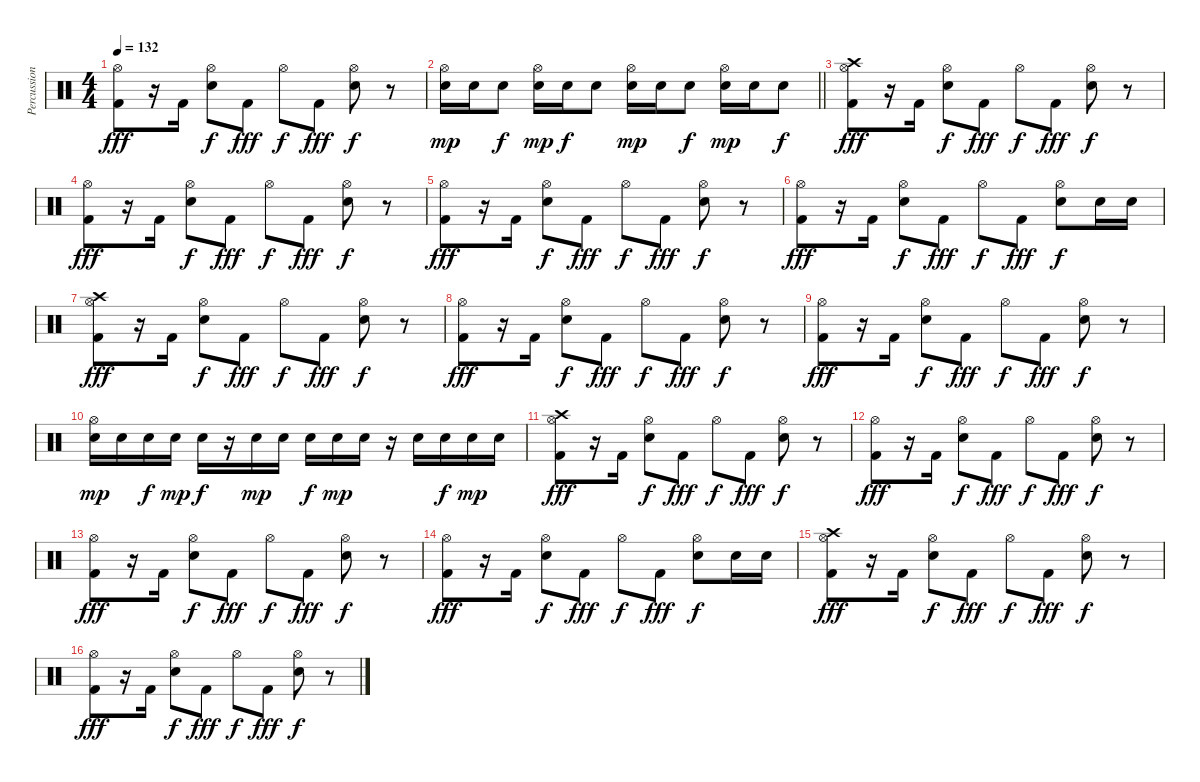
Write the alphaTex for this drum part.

\track ("Percussion" "Percussion") {instrument percussion}
\staff {score}
\articulation defaults
\ts (4 4)
\tempo 132
\clef neutral
\ks c
("Kick (hit) 2" "Hi-Hat (open)").8{dy fff} r.16 "Kick (hit) 2".16 ("Electric Snare (hit)" "Hi-Hat (open)").8{dy f} "Kick (hit) 2".8{dy fff} "Hi-Hat (open)".8{dy f} "Kick (hit) 2".8{dy fff} ("Electric Snare (hit)" "Hi-Hat (open)").8{dy f} r.8 |
\barLineRight lightlight
("Electric Snare (hit)" "Hi-Hat (open)").16{dy mp} "Electric Snare (hit)".16 "Electric Snare (hit)".8{dy f} ("Electric Snare (hit)" "Hi-Hat (open)").16{dy mp} "Electric Snare (hit)".16{dy f} "Electric Snare (hit)".8 ("Electric Snare (hit)" "Hi-Hat (open)").16{dy mp} "Electric Snare (hit)".16 "Electric Snare (hit)".8{dy f} ("Electric Snare (hit)" "Hi-Hat (open)").16{dy mp} "Electric Snare (hit)".16 "Electric Snare (hit)".8{dy f} |
("Kick (hit) 2" "Hi-Hat (open)" "Crash high (hit)").8{dy fff} r.16 "Kick (hit) 2".16 ("Electric Snare (hit)" "Hi-Hat (open)").8{dy f} "Kick (hit) 2".8{dy fff} "Hi-Hat (open)".8{dy f} "Kick (hit) 2".8{dy fff} ("Electric Snare (hit)" "Hi-Hat (open)").8{dy f} r.8 |
("Kick (hit) 2" "Hi-Hat (open)").8{dy fff} r.16 "Kick (hit) 2".16 ("Electric Snare (hit)" "Hi-Hat (open)").8{dy f} "Kick (hit) 2".8{dy fff} "Hi-Hat (open)".8{dy f} "Kick (hit) 2".8{dy fff} ("Electric Snare (hit)" "Hi-Hat (open)").8{dy f} r.8 |
("Kick (hit) 2" "Hi-Hat (open)").8{dy fff} r.16 "Kick (hit) 2".16 ("Electric Snare (hit)" "Hi-Hat (open)").8{dy f} "Kick (hit) 2".8{dy fff} "Hi-Hat (open)".8{dy f} "Kick (hit) 2".8{dy fff} ("Electric Snare (hit)" "Hi-Hat (open)").8{dy f} r.8 |
("Kick (hit) 2" "Hi-Hat (open)").8{dy fff} r.16 "Kick (hit) 2".16 ("Electric Snare (hit)" "Hi-Hat (open)").8{dy f} "Kick (hit) 2".8{dy fff} "Hi-Hat (open)".8{dy f} "Kick (hit) 2".8{dy fff} ("Electric Snare (hit)" "Hi-Hat (open)").8{dy f} "Electric Snare (hit)".16 "Electric Snare (hit)".16 |
("Kick (hit) 2" "Hi-Hat (open)" "Crash high (hit)").8{dy fff} r.16 "Kick (hit) 2".16 ("Electric Snare (hit)" "Hi-Hat (open)").8{dy f} "Kick (hit) 2".8{dy fff} "Hi-Hat (open)".8{dy f} "Kick (hit) 2".8{dy fff} ("Electric Snare (hit)" "Hi-Hat (open)").8{dy f} r.8 |
("Kick (hit) 2" "Hi-Hat (open)").8{dy fff} r.16 "Kick (hit) 2".16 ("Electric Snare (hit)" "Hi-Hat (open)").8{dy f} "Kick (hit) 2".8{dy fff} "Hi-Hat (open)".8{dy f} "Kick (hit) 2".8{dy fff} ("Electric Snare (hit)" "Hi-Hat (open)").8{dy f} r.8 |
("Kick (hit) 2" "Hi-Hat (open)").8{dy fff} r.16 "Kick (hit) 2".16 ("Electric Snare (hit)" "Hi-Hat (open)").8{dy f} "Kick (hit) 2".8{dy fff} "Hi-Hat (open)".8{dy f} "Kick (hit) 2".8{dy fff} ("Electric Snare (hit)" "Hi-Hat (open)").8{dy f} r.8 |
("Electric Snare (hit)" "Hi-Hat (open)").16{dy mp} "Electric Snare (hit)".16 "Electric Snare (hit)".16{dy f} "Electric Snare (hit)".16{dy mp} "Electric Snare (hit)".16{dy f} r.16 "Electric Snare (hit)".16{dy mp} "Electric Snare (hit)".16 "Electric Snare (hit)".16{dy f} "Electric Snare (hit)".16{dy mp} "Electric Snare (hit)".16 r.16 "Electric Snare (hit)".16 "Electric Snare (hit)".16{dy f} "Electric Snare (hit)".16{dy mp} "Electric Snare (hit)".16 |
("Kick (hit) 2" "Hi-Hat (open)" "Crash high (hit)").8{dy fff} r.16 "Kick (hit) 2".16 ("Electric Snare (hit)" "Hi-Hat (open)").8{dy f} "Kick (hit) 2".8{dy fff} "Hi-Hat (open)".8{dy f} "Kick (hit) 2".8{dy fff} ("Electric Snare (hit)" "Hi-Hat (open)").8{dy f} r.8 |
("Kick (hit) 2" "Hi-Hat (open)").8{dy fff} r.16 "Kick (hit) 2".16 ("Electric Snare (hit)" "Hi-Hat (open)").8{dy f} "Kick (hit) 2".8{dy fff} "Hi-Hat (open)".8{dy f} "Kick (hit) 2".8{dy fff} ("Electric Snare (hit)" "Hi-Hat (open)").8{dy f} r.8 |
("Kick (hit) 2" "Hi-Hat (open)").8{dy fff} r.16 "Kick (hit) 2".16 ("Electric Snare (hit)" "Hi-Hat (open)").8{dy f} "Kick (hit) 2".8{dy fff} "Hi-Hat (open)".8{dy f} "Kick (hit) 2".8{dy fff} ("Electric Snare (hit)" "Hi-Hat (open)").8{dy f} r.8 |
("Kick (hit) 2" "Hi-Hat (open)").8{dy fff} r.16 "Kick (hit) 2".16 ("Electric Snare (hit)" "Hi-Hat (open)").8{dy f} "Kick (hit) 2".8{dy fff} "Hi-Hat (open)".8{dy f} "Kick (hit) 2".8{dy fff} ("Electric Snare (hit)" "Hi-Hat (open)").8{dy f} "Electric Snare (hit)".16 "Electric Snare (hit)".16 |
("Kick (hit) 2" "Hi-Hat (open)" "Crash high (hit)").8{dy fff} r.16 "Kick (hit) 2".16 ("Electric Snare (hit)" "Hi-Hat (open)").8{dy f} "Kick (hit) 2".8{dy fff} "Hi-Hat (open)".8{dy f} "Kick (hit) 2".8{dy fff} ("Electric Snare (hit)" "Hi-Hat (open)").8{dy f} r.8 |
("Kick (hit) 2" "Hi-Hat (open)").8{dy fff} r.16 "Kick (hit) 2".16 ("Electric Snare (hit)" "Hi-Hat (open)").8{dy f} "Kick (hit) 2".8{dy fff} "Hi-Hat (open)".8{dy f} "Kick (hit) 2".8{dy fff} ("Electric Snare (hit)" "Hi-Hat (open)").8{dy f} r.8
